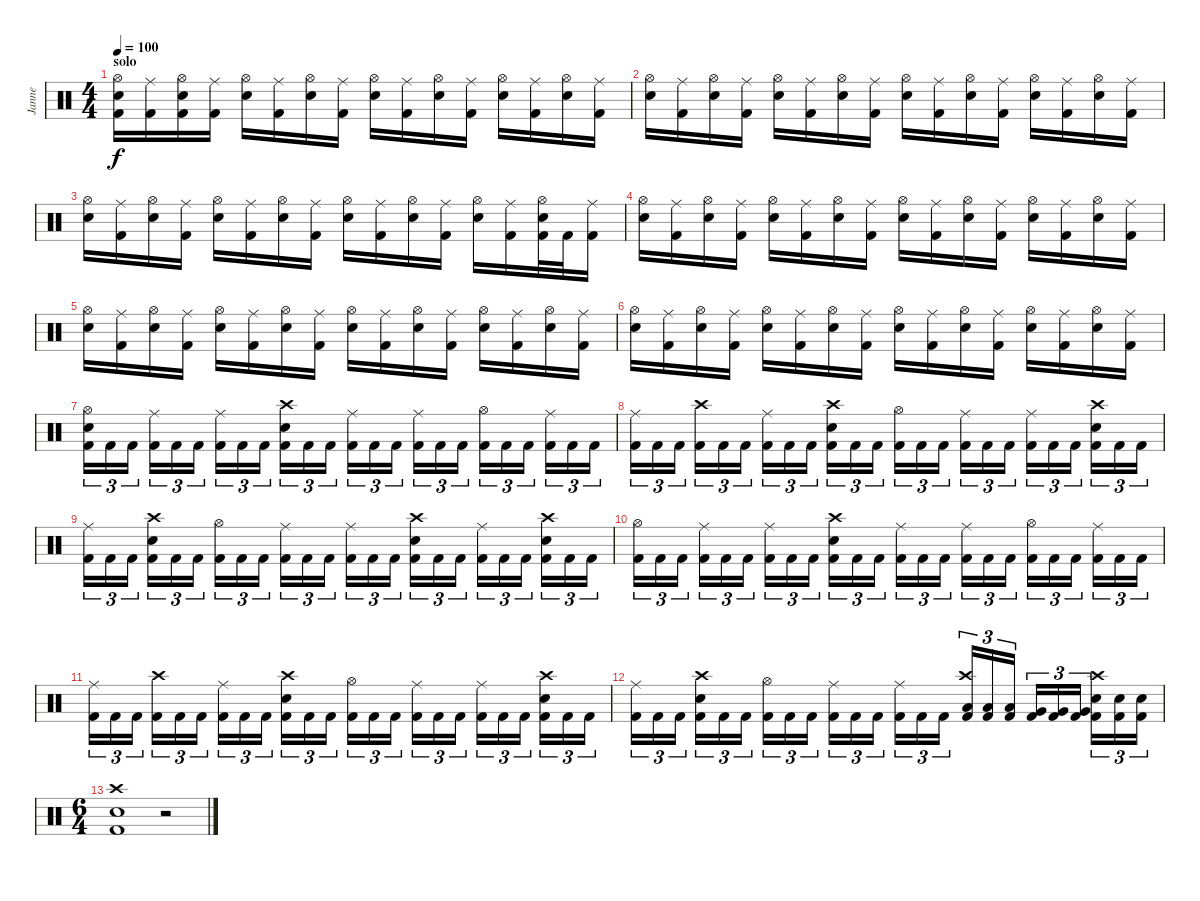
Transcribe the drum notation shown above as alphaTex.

\track ("Janne" "Janne") {instrument percussion}
\staff {score}
\articulation defaults
\ts (4 4)
\section ("" "solo")
\tempo 100
\clef neutral
\ks c
("Hi-Hat (open)" "Electric Snare (hit)" "Kick (hit) 2").16{dy f} ("Ride (middle)" "Kick (hit) 2").16 ("Hi-Hat (open)" "Electric Snare (hit)" "Kick (hit) 2").16 ("Ride (middle)" "Kick (hit) 2").16 ("Hi-Hat (open)" "Electric Snare (hit)").16 ("Ride (middle)" "Kick (hit) 2").16 ("Hi-Hat (open)" "Electric Snare (hit)").16 ("Ride (middle)" "Kick (hit) 2").16 ("Hi-Hat (open)" "Electric Snare (hit)").16 ("Ride (middle)" "Kick (hit) 2").16 ("Hi-Hat (open)" "Electric Snare (hit)").16 ("Ride (middle)" "Kick (hit) 2").16 ("Hi-Hat (open)" "Electric Snare (hit)").16 ("Ride (middle)" "Kick (hit) 2").16 ("Hi-Hat (open)" "Electric Snare (hit)").16 ("Ride (middle)" "Kick (hit) 2").16 |
("Hi-Hat (open)" "Electric Snare (hit)").16 ("Ride (middle)" "Kick (hit) 2").16 ("Hi-Hat (open)" "Electric Snare (hit)").16 ("Ride (middle)" "Kick (hit) 2").16 ("Hi-Hat (open)" "Electric Snare (hit)").16 ("Ride (middle)" "Kick (hit) 2").16 ("Hi-Hat (open)" "Electric Snare (hit)").16 ("Ride (middle)" "Kick (hit) 2").16 ("Hi-Hat (open)" "Electric Snare (hit)").16 ("Ride (middle)" "Kick (hit) 2").16 ("Hi-Hat (open)" "Electric Snare (hit)").16 ("Ride (middle)" "Kick (hit) 2").16 ("Hi-Hat (open)" "Electric Snare (hit)").16 ("Ride (middle)" "Kick (hit) 2").16 ("Hi-Hat (open)" "Electric Snare (hit)").16 ("Ride (middle)" "Kick (hit) 2").16 |
("Hi-Hat (open)" "Electric Snare (hit)").16 ("Ride (middle)" "Kick (hit) 2").16 ("Hi-Hat (open)" "Electric Snare (hit)").16 ("Ride (middle)" "Kick (hit) 2").16 ("Hi-Hat (open)" "Electric Snare (hit)").16 ("Ride (middle)" "Kick (hit) 2").16 ("Hi-Hat (open)" "Electric Snare (hit)").16 ("Ride (middle)" "Kick (hit) 2").16 ("Hi-Hat (open)" "Electric Snare (hit)").16 ("Ride (middle)" "Kick (hit) 2").16 ("Hi-Hat (open)" "Electric Snare (hit)").16 ("Ride (middle)" "Kick (hit) 2").16 ("Hi-Hat (open)" "Electric Snare (hit)").16 ("Ride (middle)" "Kick (hit) 2").16 ("Hi-Hat (open)" "Electric Snare (hit)" "Kick (hit) 2").32 "Kick (hit) 2".32 ("Ride (middle)" "Kick (hit) 2").16 |
("Hi-Hat (open)" "Electric Snare (hit)").16 ("Ride (middle)" "Kick (hit) 2").16 ("Hi-Hat (open)" "Electric Snare (hit)").16 ("Ride (middle)" "Kick (hit) 2").16 ("Hi-Hat (open)" "Electric Snare (hit)").16 ("Ride (middle)" "Kick (hit) 2").16 ("Hi-Hat (open)" "Electric Snare (hit)").16 ("Ride (middle)" "Kick (hit) 2").16 ("Hi-Hat (open)" "Electric Snare (hit)").16 ("Ride (middle)" "Kick (hit) 2").16 ("Hi-Hat (open)" "Electric Snare (hit)").16 ("Ride (middle)" "Kick (hit) 2").16 ("Hi-Hat (open)" "Electric Snare (hit)").16 ("Ride (middle)" "Kick (hit) 2").16 ("Hi-Hat (open)" "Electric Snare (hit)").16 ("Ride (middle)" "Kick (hit) 2").16 |
("Hi-Hat (open)" "Electric Snare (hit)").16 ("Ride (middle)" "Kick (hit) 2").16 ("Hi-Hat (open)" "Electric Snare (hit)").16 ("Ride (middle)" "Kick (hit) 2").16 ("Hi-Hat (open)" "Electric Snare (hit)").16 ("Ride (middle)" "Kick (hit) 2").16 ("Hi-Hat (open)" "Electric Snare (hit)").16 ("Ride (middle)" "Kick (hit) 2").16 ("Hi-Hat (open)" "Electric Snare (hit)").16 ("Ride (middle)" "Kick (hit) 2").16 ("Hi-Hat (open)" "Electric Snare (hit)").16 ("Ride (middle)" "Kick (hit) 2").16 ("Hi-Hat (open)" "Electric Snare (hit)").16 ("Ride (middle)" "Kick (hit) 2").16 ("Hi-Hat (open)" "Electric Snare (hit)").16 ("Ride (middle)" "Kick (hit) 2").16 |
("Hi-Hat (open)" "Electric Snare (hit)").16 ("Ride (middle)" "Kick (hit) 2").16 ("Hi-Hat (open)" "Electric Snare (hit)").16 ("Ride (middle)" "Kick (hit) 2").16 ("Hi-Hat (open)" "Electric Snare (hit)").16 ("Ride (middle)" "Kick (hit) 2").16 ("Hi-Hat (open)" "Electric Snare (hit)").16 ("Ride (middle)" "Kick (hit) 2").16 ("Hi-Hat (open)" "Electric Snare (hit)").16 ("Ride (middle)" "Kick (hit) 2").16 ("Hi-Hat (open)" "Electric Snare (hit)").16 ("Ride (middle)" "Kick (hit) 2").16 ("Hi-Hat (open)" "Electric Snare (hit)").16 ("Ride (middle)" "Kick (hit) 2").16 ("Hi-Hat (open)" "Electric Snare (hit)").16 ("Ride (middle)" "Kick (hit) 2").16 |
("Hi-Hat (open)" "Electric Snare (hit)" "Kick (hit) 2").16{tu (3 2)} "Kick (hit) 2".16{tu (3 2)} "Kick (hit) 2".16{tu (3 2) beam splitsecondary} ("Ride (middle)" "Kick (hit) 2").16{tu (3 2)} "Kick (hit) 2".16{tu (3 2)} "Kick (hit) 2".16{tu (3 2)} ("Ride (middle)" "Kick (hit) 2").16{tu (3 2)} "Kick (hit) 2".16{tu (3 2)} "Kick (hit) 2".16{tu (3 2) beam splitsecondary} ("Crash high (hit)" "Electric Snare (hit)" "Kick (hit) 2").16{tu (3 2)} "Kick (hit) 2".16{tu (3 2)} "Kick (hit) 2".16{tu (3 2)} ("Ride (middle)" "Kick (hit) 2").16{tu (3 2)} "Kick (hit) 2".16{tu (3 2)} "Kick (hit) 2".16{tu (3 2) beam splitsecondary} ("Ride (middle)" "Kick (hit) 2").16{tu (3 2)} "Kick (hit) 2".16{tu (3 2)} "Kick (hit) 2".16{tu (3 2)} ("Hi-Hat (open)" "Kick (hit) 2").16{tu (3 2)} "Kick (hit) 2".16{tu (3 2)} "Kick (hit) 2".16{tu (3 2) beam splitsecondary} ("Ride (middle)" "Kick (hit) 2").16{tu (3 2)} "Kick (hit) 2".16{tu (3 2)} "Kick (hit) 2".16{tu (3 2)} |
("Ride (middle)" "Kick (hit) 2").16{tu (3 2)} "Kick (hit) 2".16{tu (3 2)} "Kick (hit) 2".16{tu (3 2) beam splitsecondary} ("Crash high (hit)" "Kick (hit) 2").16{tu (3 2)} "Kick (hit) 2".16{tu (3 2)} "Kick (hit) 2".16{tu (3 2)} ("Ride (middle)" "Kick (hit) 2").16{tu (3 2)} "Kick (hit) 2".16{tu (3 2)} "Kick (hit) 2".16{tu (3 2) beam splitsecondary} ("Crash high (hit)" "Electric Snare (hit)" "Kick (hit) 2").16{tu (3 2)} "Kick (hit) 2".16{tu (3 2)} "Kick (hit) 2".16{tu (3 2)} ("Hi-Hat (open)" "Kick (hit) 2").16{tu (3 2)} "Kick (hit) 2".16{tu (3 2)} "Kick (hit) 2".16{tu (3 2) beam splitsecondary} ("Ride (middle)" "Kick (hit) 2").16{tu (3 2)} "Kick (hit) 2".16{tu (3 2)} "Kick (hit) 2".16{tu (3 2)} ("Ride (middle)" "Kick (hit) 2").16{tu (3 2)} "Kick (hit) 2".16{tu (3 2)} "Kick (hit) 2".16{tu (3 2) beam splitsecondary} ("Crash high (hit)" "Electric Snare (hit)" "Kick (hit) 2").16{tu (3 2)} "Kick (hit) 2".16{tu (3 2)} "Kick (hit) 2".16{tu (3 2)} |
("Ride (middle)" "Kick (hit) 2").16{tu (3 2)} "Kick (hit) 2".16{tu (3 2)} "Kick (hit) 2".16{tu (3 2) beam splitsecondary} ("Crash high (hit)" "Electric Snare (hit)" "Kick (hit) 2").16{tu (3 2)} "Kick (hit) 2".16{tu (3 2)} "Kick (hit) 2".16{tu (3 2)} ("Hi-Hat (open)" "Kick (hit) 2").16{tu (3 2)} "Kick (hit) 2".16{tu (3 2)} "Kick (hit) 2".16{tu (3 2) beam splitsecondary} ("Ride (middle)" "Kick (hit) 2").16{tu (3 2)} "Kick (hit) 2".16{tu (3 2)} "Kick (hit) 2".16{tu (3 2)} ("Ride (middle)" "Kick (hit) 2").16{tu (3 2)} "Kick (hit) 2".16{tu (3 2)} "Kick (hit) 2".16{tu (3 2) beam splitsecondary} ("Crash high (hit)" "Electric Snare (hit)" "Kick (hit) 2").16{tu (3 2)} "Kick (hit) 2".16{tu (3 2)} "Kick (hit) 2".16{tu (3 2)} ("Ride (middle)" "Kick (hit) 2").16{tu (3 2)} "Kick (hit) 2".16{tu (3 2)} "Kick (hit) 2".16{tu (3 2) beam splitsecondary} ("Crash high (hit)" "Electric Snare (hit)" "Kick (hit) 2").16{tu (3 2)} "Kick (hit) 2".16{tu (3 2)} "Kick (hit) 2".16{tu (3 2)} |
("Hi-Hat (open)" "Kick (hit) 2").16{tu (3 2)} "Kick (hit) 2".16{tu (3 2)} "Kick (hit) 2".16{tu (3 2) beam splitsecondary} ("Ride (middle)" "Kick (hit) 2").16{tu (3 2)} "Kick (hit) 2".16{tu (3 2)} "Kick (hit) 2".16{tu (3 2)} ("Ride (middle)" "Kick (hit) 2").16{tu (3 2)} "Kick (hit) 2".16{tu (3 2)} "Kick (hit) 2".16{tu (3 2) beam splitsecondary} ("Crash high (hit)" "Electric Snare (hit)" "Kick (hit) 2").16{tu (3 2)} "Kick (hit) 2".16{tu (3 2)} "Kick (hit) 2".16{tu (3 2)} ("Ride (middle)" "Kick (hit) 2").16{tu (3 2)} "Kick (hit) 2".16{tu (3 2)} "Kick (hit) 2".16{tu (3 2) beam splitsecondary} ("Ride (middle)" "Kick (hit) 2").16{tu (3 2)} "Kick (hit) 2".16{tu (3 2)} "Kick (hit) 2".16{tu (3 2)} ("Hi-Hat (open)" "Kick (hit) 2").16{tu (3 2)} "Kick (hit) 2".16{tu (3 2)} "Kick (hit) 2".16{tu (3 2) beam splitsecondary} ("Ride (middle)" "Kick (hit) 2").16{tu (3 2)} "Kick (hit) 2".16{tu (3 2)} "Kick (hit) 2".16{tu (3 2)} |
("Ride (middle)" "Kick (hit) 2").16{tu (3 2)} "Kick (hit) 2".16{tu (3 2)} "Kick (hit) 2".16{tu (3 2) beam splitsecondary} ("Crash high (hit)" "Kick (hit) 2").16{tu (3 2)} "Kick (hit) 2".16{tu (3 2)} "Kick (hit) 2".16{tu (3 2)} ("Ride (middle)" "Kick (hit) 2").16{tu (3 2)} "Kick (hit) 2".16{tu (3 2)} "Kick (hit) 2".16{tu (3 2) beam splitsecondary} ("Crash high (hit)" "Electric Snare (hit)" "Kick (hit) 2").16{tu (3 2)} "Kick (hit) 2".16{tu (3 2)} "Kick (hit) 2".16{tu (3 2)} ("Hi-Hat (open)" "Kick (hit) 2").16{tu (3 2)} "Kick (hit) 2".16{tu (3 2)} "Kick (hit) 2".16{tu (3 2) beam splitsecondary} ("Ride (middle)" "Kick (hit) 2").16{tu (3 2)} "Kick (hit) 2".16{tu (3 2)} "Kick (hit) 2".16{tu (3 2)} ("Ride (middle)" "Kick (hit) 2").16{tu (3 2)} "Kick (hit) 2".16{tu (3 2)} "Kick (hit) 2".16{tu (3 2) beam splitsecondary} ("Crash high (hit)" "Electric Snare (hit)" "Kick (hit) 2").16{tu (3 2)} "Kick (hit) 2".16{tu (3 2)} "Kick (hit) 2".16{tu (3 2)} |
("Ride (middle)" "Kick (hit) 2").16{tu (3 2)} "Kick (hit) 2".16{tu (3 2)} "Kick (hit) 2".16{tu (3 2) beam splitsecondary} ("Crash high (hit)" "Electric Snare (hit)" "Kick (hit) 2").16{tu (3 2)} "Kick (hit) 2".16{tu (3 2)} "Kick (hit) 2".16{tu (3 2)} ("Hi-Hat (open)" "Kick (hit) 2").16{tu (3 2)} "Kick (hit) 2".16{tu (3 2)} "Kick (hit) 2".16{tu (3 2) beam splitsecondary} ("Ride (middle)" "Kick (hit) 2").16{tu (3 2)} "Kick (hit) 2".16{tu (3 2)} "Kick (hit) 2".16{tu (3 2)} ("Ride (middle)" "Kick (hit) 2").16{tu (3 2)} "Kick (hit) 2".16{tu (3 2)} "Kick (hit) 2".16{tu (3 2) beam splitsecondary} ("Crash high (hit)" "Low Tom (hit)" "Kick (hit) 2").16{tu (3 2)} ("Low Tom (hit)" "Kick (hit) 2").16{tu (3 2)} ("Low Tom (hit)" "Kick (hit) 2").16{tu (3 2)} ("Very Low Tom (hit)" "Kick (hit) 2").16{tu (3 2)} ("Very Low Tom (hit)" "Kick (hit) 2").16{tu (3 2)} ("Very Low Tom (hit)" "Kick (hit) 2").16{tu (3 2) beam splitsecondary} ("Crash high (hit)" "Electric Snare (hit)" "Kick (hit) 2").16{tu (3 2)} ("Electric Snare (hit)" "Kick (hit) 2").16{tu (3 2)} ("Electric Snare (hit)" "Kick (hit) 2").16{tu (3 2)} |
\ts (6 4)
("Crash high (hit)" "Electric Snare (hit)" "Kick (hit) 2").1 r.2
